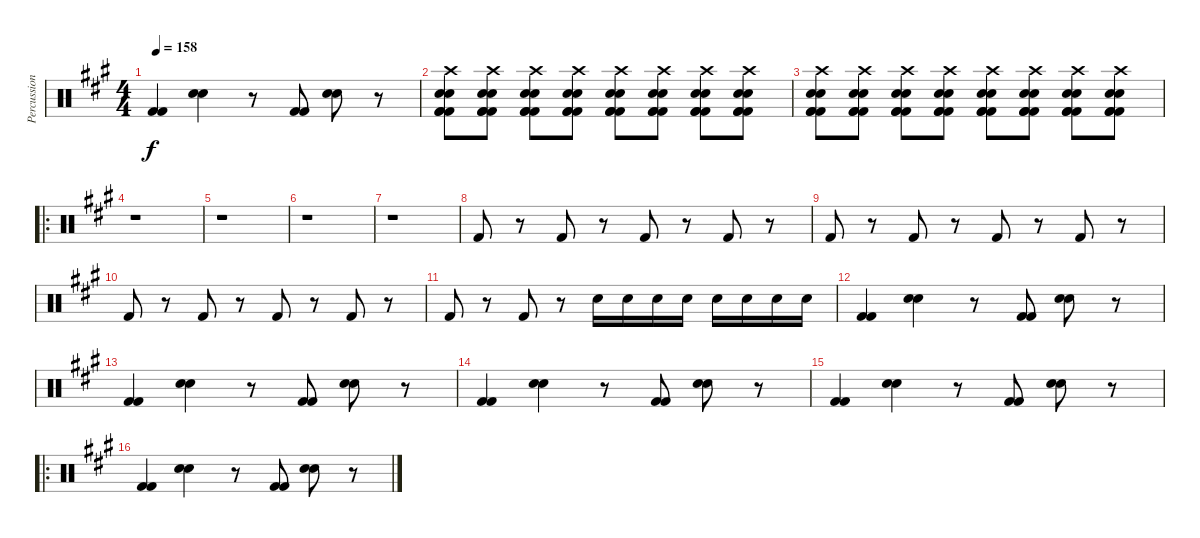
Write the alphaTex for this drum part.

\track ("Percussion" "Percussion") {instrument percussion}
\staff {score}
\articulation defaults
\ts (4 4)
\tempo 158
\clef neutral
\ks a
("Kick (hit) 2" "Kick (hit) 2").4{dy f} ("Snare (hit) 2" "Snare (hit) 2").4 r.8 ("Kick (hit) 2" "Kick (hit) 2").8 ("Snare (hit) 2" "Snare (hit) 2").8 r.8 |
("Crash high (hit)" "Kick (hit) 2" "Snare (hit) 2" "Snare (hit) 2" "Kick (hit) 2" "Kick (hit) 2").8 ("Crash high (hit)" "Kick (hit) 2" "Snare (hit) 2" "Snare (hit) 2" "Kick (hit) 2" "Kick (hit) 2").8 ("Crash high (hit)" "Kick (hit) 2" "Snare (hit) 2" "Snare (hit) 2" "Kick (hit) 2" "Kick (hit) 2").8 ("Crash high (hit)" "Kick (hit) 2" "Snare (hit) 2" "Snare (hit) 2" "Kick (hit) 2" "Kick (hit) 2").8 ("Crash high (hit)" "Kick (hit) 2" "Snare (hit) 2" "Snare (hit) 2" "Kick (hit) 2" "Kick (hit) 2").8 ("Crash high (hit)" "Kick (hit) 2" "Snare (hit) 2" "Snare (hit) 2" "Kick (hit) 2" "Kick (hit) 2").8 ("Crash high (hit)" "Kick (hit) 2" "Snare (hit) 2" "Snare (hit) 2" "Kick (hit) 2" "Kick (hit) 2").8 ("Crash high (hit)" "Kick (hit) 2" "Snare (hit) 2" "Snare (hit) 2" "Kick (hit) 2" "Kick (hit) 2").8 |
("Crash high (hit)" "Kick (hit) 2" "Snare (hit) 2" "Snare (hit) 2" "Kick (hit) 2" "Kick (hit) 2").8 ("Crash high (hit)" "Kick (hit) 2" "Snare (hit) 2" "Snare (hit) 2" "Kick (hit) 2" "Kick (hit) 2").8 ("Crash high (hit)" "Kick (hit) 2" "Snare (hit) 2" "Snare (hit) 2" "Kick (hit) 2" "Kick (hit) 2").8 ("Crash high (hit)" "Kick (hit) 2" "Snare (hit) 2" "Snare (hit) 2" "Kick (hit) 2" "Kick (hit) 2").8 ("Crash high (hit)" "Kick (hit) 2" "Snare (hit) 2" "Snare (hit) 2" "Kick (hit) 2" "Kick (hit) 2").8 ("Crash high (hit)" "Kick (hit) 2" "Snare (hit) 2" "Snare (hit) 2" "Kick (hit) 2" "Kick (hit) 2").8 ("Crash high (hit)" "Kick (hit) 2" "Snare (hit) 2" "Snare (hit) 2" "Kick (hit) 2" "Kick (hit) 2").8 ("Crash high (hit)" "Kick (hit) 2" "Snare (hit) 2" "Snare (hit) 2" "Kick (hit) 2" "Kick (hit) 2").8 |
\ro
r.1 |
r.1 |
r.1 |
r.1 |
"Kick (hit) 2".8 r.8 "Kick (hit) 2".8 r.8 "Kick (hit) 2".8 r.8 "Kick (hit) 2".8 r.8 |
"Kick (hit) 2".8 r.8 "Kick (hit) 2".8 r.8 "Kick (hit) 2".8 r.8 "Kick (hit) 2".8 r.8 |
"Kick (hit) 2".8 r.8 "Kick (hit) 2".8 r.8 "Kick (hit) 2".8 r.8 "Kick (hit) 2".8 r.8 |
"Kick (hit) 2".8 r.8 "Kick (hit) 2".8 r.8 "Snare (hit) 2".16 "Snare (hit) 2".16 "Snare (hit) 2".16 "Snare (hit) 2".16 "Snare (hit) 2".16 "Snare (hit) 2".16 "Snare (hit) 2".16 "Snare (hit) 2".16 |
("Kick (hit) 2" "Kick (hit) 2").4 ("Snare (hit) 2" "Snare (hit) 2").4 r.8 ("Kick (hit) 2" "Kick (hit) 2").8 ("Snare (hit) 2" "Snare (hit) 2").8 r.8 |
("Kick (hit) 2" "Kick (hit) 2").4 ("Snare (hit) 2" "Snare (hit) 2").4 r.8 ("Kick (hit) 2" "Kick (hit) 2").8 ("Snare (hit) 2" "Snare (hit) 2").8 r.8 |
("Kick (hit) 2" "Kick (hit) 2").4 ("Snare (hit) 2" "Snare (hit) 2").4 r.8 ("Kick (hit) 2" "Kick (hit) 2").8 ("Snare (hit) 2" "Snare (hit) 2").8 r.8 |
("Kick (hit) 2" "Kick (hit) 2").4 ("Snare (hit) 2" "Snare (hit) 2").4 r.8 ("Kick (hit) 2" "Kick (hit) 2").8 ("Snare (hit) 2" "Snare (hit) 2").8 r.8 |
\ro
("Kick (hit) 2" "Kick (hit) 2").4 ("Snare (hit) 2" "Snare (hit) 2").4 r.8 ("Kick (hit) 2" "Kick (hit) 2").8 ("Snare (hit) 2" "Snare (hit) 2").8 r.8
